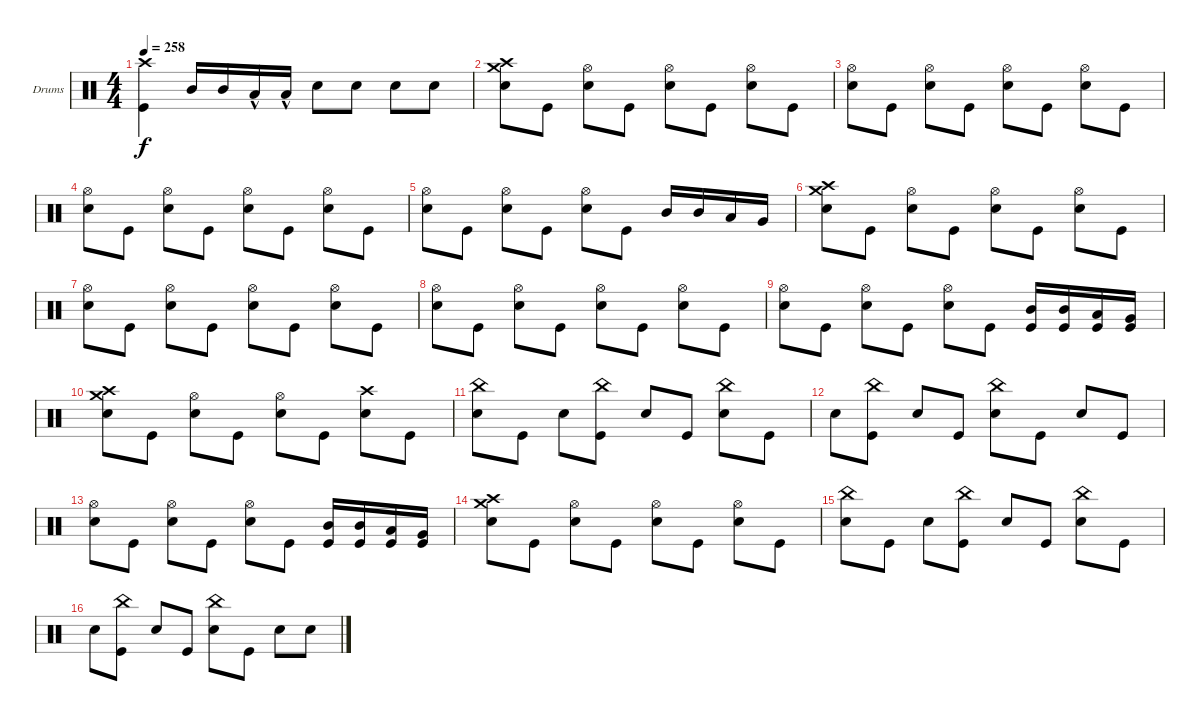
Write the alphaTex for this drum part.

\defaultSystemsLayout 4
\bracketExtendMode groupsimilarinstruments
\firstSystemTrackNameOrientation horizontal
\otherSystemsTrackNameOrientation horizontal
\track ("Drumkit" "Drums") {instrument percussion}
\staff {score}
\articulation defaults
\ts (4 4)
\tempo 258
\clef neutral
\ks c
("Crash high (hit)" "Kick (hit)").4{dy f} "Mid Tom (hit)".16 "Mid Tom (hit)".16 "Low Tom (hit)"{hac}.16 "Low Tom (hit)"{hac}.16 "Snare (hit) 2".8 "Snare (hit) 2".8 "Snare (hit) 2".8 "Snare (hit) 2".8 |
("Crash high (hit)" "Snare (hit) 2" "Crash medium (hit)").8 "Kick (hit)".8 ("Snare (hit) 2" "Hi-Hat (open)").8 "Kick (hit)".8 ("Snare (hit) 2" "Hi-Hat (open)").8 "Kick (hit)".8 ("Snare (hit) 2" "Hi-Hat (open)").8 "Kick (hit)".8 |
("Snare (hit) 2" "Hi-Hat (open)").8 "Kick (hit)".8 ("Snare (hit) 2" "Hi-Hat (open)").8 "Kick (hit)".8 ("Snare (hit) 2" "Hi-Hat (open)").8 "Kick (hit)".8 ("Snare (hit) 2" "Hi-Hat (open)").8 "Kick (hit)".8 |
("Snare (hit) 2" "Hi-Hat (open)").8 "Kick (hit)".8 ("Snare (hit) 2" "Hi-Hat (open)").8 "Kick (hit)".8 ("Snare (hit) 2" "Hi-Hat (open)").8 "Kick (hit)".8 ("Snare (hit) 2" "Hi-Hat (open)").8 "Kick (hit)".8 |
("Snare (hit) 2" "Hi-Hat (open)").8 "Kick (hit)".8 ("Snare (hit) 2" "Hi-Hat (open)").8 "Kick (hit)".8 ("Snare (hit) 2" "Hi-Hat (open)").8 "Kick (hit)".8 "Mid Tom (hit)".16 "Mid Tom (hit)".16 "Low Tom (hit)".16 "Very Low Tom (hit)".16 |
("Crash high (hit)" "Snare (hit) 2" "Crash medium (hit)").8 "Kick (hit)".8 ("Snare (hit) 2" "Hi-Hat (open)").8 "Kick (hit)".8 ("Snare (hit) 2" "Hi-Hat (open)").8 "Kick (hit)".8 ("Snare (hit) 2" "Hi-Hat (open)").8 "Kick (hit)".8 |
("Snare (hit) 2" "Hi-Hat (open)").8 "Kick (hit)".8 ("Snare (hit) 2" "Hi-Hat (open)").8 "Kick (hit)".8 ("Snare (hit) 2" "Hi-Hat (open)").8 "Kick (hit)".8 ("Snare (hit) 2" "Hi-Hat (open)").8 "Kick (hit)".8 |
("Snare (hit) 2" "Hi-Hat (open)").8 "Kick (hit)".8 ("Snare (hit) 2" "Hi-Hat (open)").8 "Kick (hit)".8 ("Snare (hit) 2" "Hi-Hat (open)").8 "Kick (hit)".8 ("Snare (hit) 2" "Hi-Hat (open)").8 "Kick (hit)".8 |
("Snare (hit) 2" "Hi-Hat (open)").8 "Kick (hit)".8 ("Snare (hit) 2" "Hi-Hat (open)").8 "Kick (hit)".8 ("Snare (hit) 2" "Hi-Hat (open)").8 "Kick (hit)".8 ("Mid Tom (hit)" "Kick (hit)").16 ("Mid Tom (hit)" "Kick (hit)").16 ("Low Tom (hit)" "Kick (hit)").16 ("Very Low Tom (hit)" "Kick (hit)").16 |
("Crash high (hit)" "Snare (hit) 2" "Crash medium (hit)").8 "Kick (hit)".8 ("Snare (hit) 2" "Hi-Hat (open)").8 "Kick (hit)".8 ("Snare (hit) 2" "Hi-Hat (open)").8 "Kick (hit)".8 ("Snare (hit) 2" "Crash high (hit)").8 "Kick (hit)".8 |
("Snare (hit) 2" "China (hit)").8 "Kick (hit)".8 "Snare (hit) 2".8 ("Kick (hit)" "China (hit)").8 "Snare (hit) 2".8 "Kick (hit)".8 ("Snare (hit) 2" "China (hit)").8 "Kick (hit)".8 |
"Snare (hit) 2".8 ("Kick (hit)" "China (hit)").8 "Snare (hit) 2".8 "Kick (hit)".8 ("Snare (hit) 2" "China (hit)").8 "Kick (hit)".8 "Snare (hit) 2".8 "Kick (hit)".8 |
("Snare (hit) 2" "Hi-Hat (open)").8 "Kick (hit)".8 ("Snare (hit) 2" "Hi-Hat (open)").8 "Kick (hit)".8 ("Snare (hit) 2" "Hi-Hat (open)").8 "Kick (hit)".8 ("Mid Tom (hit)" "Kick (hit)").16 ("Mid Tom (hit)" "Kick (hit)").16 ("Low Tom (hit)" "Kick (hit)").16 ("Very Low Tom (hit)" "Kick (hit)").16 |
("Crash high (hit)" "Snare (hit) 2" "Crash medium (hit)").8 "Kick (hit)".8 ("Snare (hit) 2" "Hi-Hat (open)").8 "Kick (hit)".8 ("Snare (hit) 2" "Hi-Hat (open)").8 "Kick (hit)".8 ("Snare (hit) 2" "Hi-Hat (open)").8 "Kick (hit)".8 |
("Snare (hit) 2" "China (hit)").8 "Kick (hit)".8 "Snare (hit) 2".8 ("Kick (hit)" "China (hit)").8 "Snare (hit) 2".8 "Kick (hit)".8 ("Snare (hit) 2" "China (hit)").8 "Kick (hit)".8 |
"Snare (hit) 2".8 ("Kick (hit)" "China (hit)").8 "Snare (hit) 2".8 "Kick (hit)".8 ("Snare (hit) 2" "China (hit)").8 "Kick (hit)".8 "Snare (hit) 2".8 "Snare (hit) 2".8
